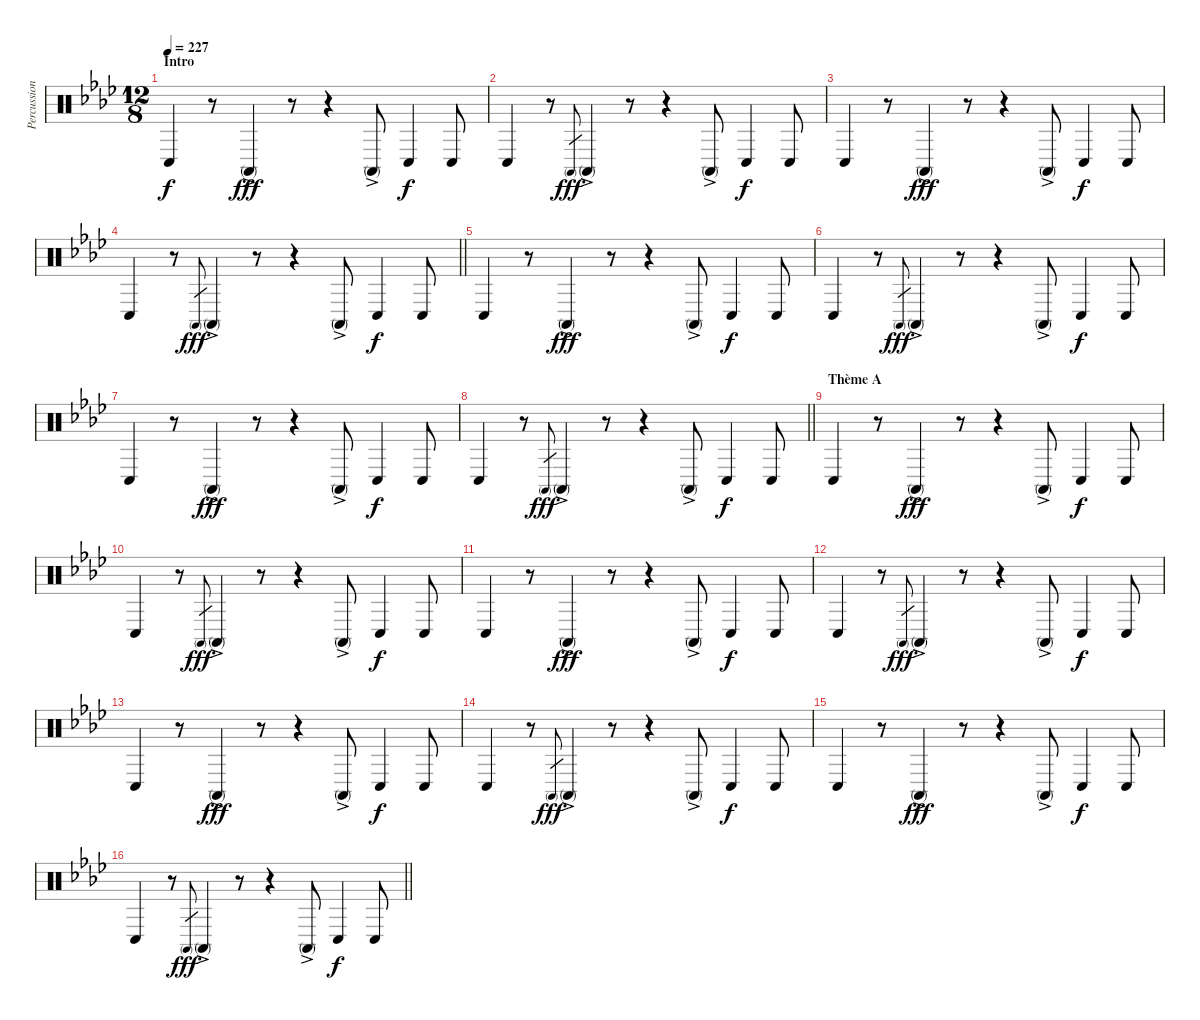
\track ("Percussions" "Percussion") {instrument percussion}
\staff {score}
\articulation defaults
\ts (12 8)
\section ("" "Intro")
\tempo 227
\clef neutral
\ks fminor "Conga low (hit)".4{dy f volume 4 balance 8}
r.8 "Conga high (mute)"{ac}.4{dy fff} r.8 r.4 "Conga high (mute)"{ac}.8 "Conga low (hit)".4{dy f} "Conga low (hit)".8 |
"Conga low (hit)".4{volume 5 balance 8} r.8 "Conga high (mute)".8{gr dy fff} "Conga high (mute)"{ac}.4 r.8 r.4 "Conga high (mute)"{ac}.8 "Conga low (hit)".4{dy f} "Conga low (hit)".8 |
"Conga low (hit)".4{volume 6 balance 8} r.8 "Conga high (mute)"{ac}.4{dy fff} r.8 r.4 "Conga high (mute)"{ac}.8 "Conga low (hit)".4{dy f} "Conga low (hit)".8 |
\barLineRight lightlight "Conga low (hit)".4{volume 7 balance 8}
r.8 "Conga high (mute)".8{gr dy fff} "Conga high (mute)"{ac}.4 r.8 r.4 "Conga high (mute)"{ac}.8 "Conga low (hit)".4{dy f} "Conga low (hit)".8 |
"Conga low (hit)".4{volume 8 balance 8} r.8 "Conga high (mute)"{ac}.4{dy fff} r.8 r.4 "Conga high (mute)"{ac}.8 "Conga low (hit)".4{dy f} "Conga low (hit)".8 |
"Conga low (hit)".4{volume 9 balance 8} r.8 "Conga high (mute)".8{gr dy fff} "Conga high (mute)"{ac}.4 r.8 r.4 "Conga high (mute)"{ac}.8 "Conga low (hit)".4{dy f} "Conga low (hit)".8 |
"Conga low (hit)".4{volume 10 balance 8} r.8 "Conga high (mute)"{ac}.4{dy fff} r.8 r.4 "Conga high (mute)"{ac}.8 "Conga low (hit)".4{dy f} "Conga low (hit)".8 |
\barLineRight lightlight "Conga low (hit)".4{volume 11 balance 8}
r.8 "Conga high (mute)".8{gr dy fff} "Conga high (mute)"{ac}.4 r.8 r.4 "Conga high (mute)"{ac}.8 "Conga low (hit)".4{dy f} "Conga low (hit)".8 |
\section ("" "Thème A")
"Conga low (hit)".4{volume 12 balance 8} r.8 "Conga high (mute)"{ac}.4{dy fff} r.8 r.4 "Conga high (mute)"{ac}.8 "Conga low (hit)".4{dy f} "Conga low (hit)".8 |
"Conga low (hit)".4 r.8 "Conga high (mute)".8{gr dy fff} "Conga high (mute)"{ac}.4 r.8 r.4 "Conga high (mute)"{ac}.8 "Conga low (hit)".4{dy f} "Conga low (hit)".8 |
"Conga low (hit)".4 r.8 "Conga high (mute)"{ac}.4{dy fff} r.8 r.4 "Conga high (mute)"{ac}.8 "Conga low (hit)".4{dy f} "Conga low (hit)".8 |
"Conga low (hit)".4 r.8 "Conga high (mute)".8{gr dy fff} "Conga high (mute)"{ac}.4 r.8 r.4 "Conga high (mute)"{ac}.8 "Conga low (hit)".4{dy f} "Conga low (hit)".8 |
"Conga low (hit)".4 r.8 "Conga high (mute)"{ac}.4{dy fff} r.8 r.4 "Conga high (mute)"{ac}.8 "Conga low (hit)".4{dy f} "Conga low (hit)".8 |
"Conga low (hit)".4 r.8 "Conga high (mute)".8{gr dy fff} "Conga high (mute)"{ac}.4 r.8 r.4 "Conga high (mute)"{ac}.8 "Conga low (hit)".4{dy f} "Conga low (hit)".8 |
"Conga low (hit)".4 r.8 "Conga high (mute)"{ac}.4{dy fff} r.8 r.4 "Conga high (mute)"{ac}.8 "Conga low (hit)".4{dy f} "Conga low (hit)".8 |
\barLineRight lightlight "Conga low (hit)".4
r.8 "Conga high (mute)".8{gr dy fff} "Conga high (mute)"{ac}.4 r.8 r.4 "Conga high (mute)"{ac}.8 "Conga low (hit)".4{dy f} "Conga low (hit)".8
